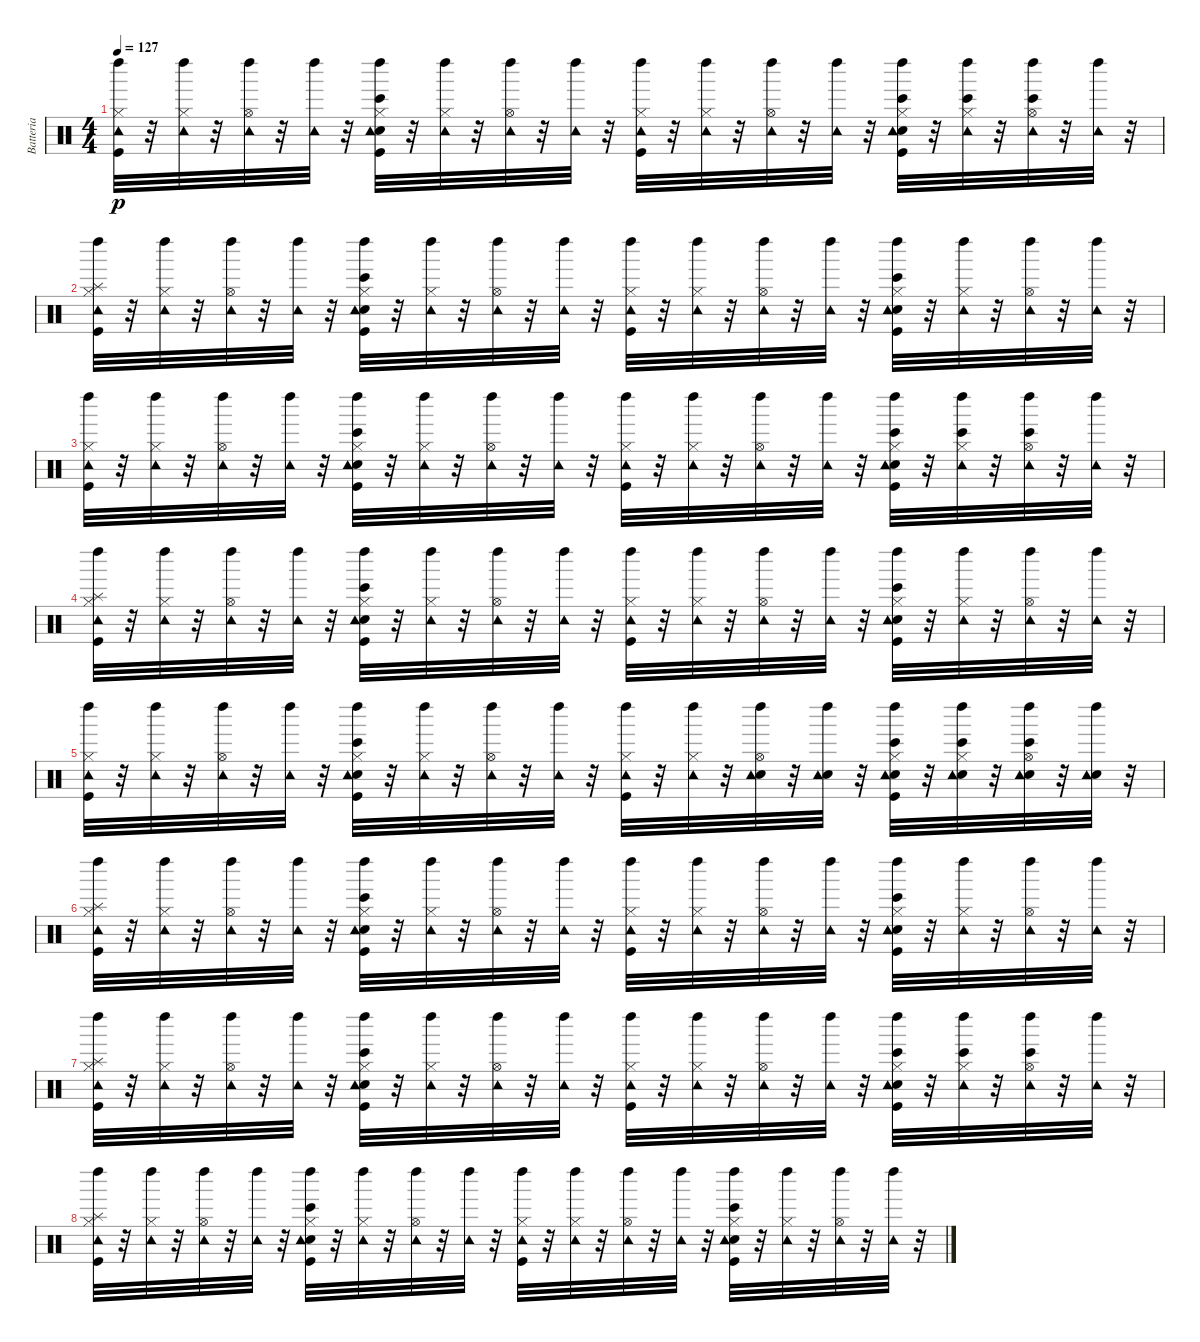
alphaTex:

\track ("Batteria" "Batteria") {instrument percussion}
\staff {score}
\articulation defaults
\ts (4 4)
\tempo 127
\clef neutral
\ks c
("Kick (hit)" "Hi-Hat (closed)" "Tambourine (hit)" "Left Maraca (hit)").32{dy p} r.32 ("Hi-Hat (closed)" "Tambourine (hit)" "Left Maraca (hit)").32 r.32 ("Hi-Hat (open)" "Tambourine (hit)" "Left Maraca (hit)").32 r.32 ("Tambourine (hit)" "Left Maraca (hit)").32 r.32 ("Bongo High (hit)" "Kick (hit)" "Electric Snare (hit)" "Hi-Hat (closed)" "Tambourine (hit)" "Left Maraca (hit)").32 r.32 ("Hi-Hat (closed)" "Tambourine (hit)" "Left Maraca (hit)").32 r.32 ("Hi-Hat (open)" "Tambourine (hit)" "Left Maraca (hit)").32 r.32 ("Tambourine (hit)" "Left Maraca (hit)").32 r.32 ("Kick (hit)" "Hi-Hat (closed)" "Tambourine (hit)" "Left Maraca (hit)").32 r.32 ("Hi-Hat (closed)" "Tambourine (hit)" "Left Maraca (hit)").32 r.32 ("Hi-Hat (open)" "Tambourine (hit)" "Left Maraca (hit)").32 r.32 ("Tambourine (hit)" "Left Maraca (hit)").32 r.32 ("Bongo High (hit)" "Kick (hit)" "Electric Snare (hit)" "Hi-Hat (closed)" "Tambourine (hit)" "Left Maraca (hit)").32 r.32 ("Bongo High (hit)" "Hi-Hat (closed)" "Tambourine (hit)" "Left Maraca (hit)").32 r.32 ("Bongo High (hit)" "Hi-Hat (open)" "Tambourine (hit)" "Left Maraca (hit)").32 r.32 ("Tambourine (hit)" "Left Maraca (hit)").32 r.32 |
("Kick (hit)" "Hi-Hat (closed)" "Tambourine (hit)" "Splash (hit)" "Left Maraca (hit)").32 r.32 ("Hi-Hat (closed)" "Tambourine (hit)" "Left Maraca (hit)").32 r.32 ("Hi-Hat (open)" "Tambourine (hit)" "Left Maraca (hit)").32 r.32 ("Tambourine (hit)" "Left Maraca (hit)").32 r.32 ("Bongo High (hit)" "Kick (hit)" "Electric Snare (hit)" "Hi-Hat (closed)" "Tambourine (hit)" "Left Maraca (hit)").32 r.32 ("Hi-Hat (closed)" "Tambourine (hit)" "Left Maraca (hit)").32 r.32 ("Hi-Hat (open)" "Tambourine (hit)" "Left Maraca (hit)").32 r.32 ("Tambourine (hit)" "Left Maraca (hit)").32 r.32 ("Kick (hit)" "Hi-Hat (closed)" "Tambourine (hit)" "Left Maraca (hit)").32 r.32 ("Hi-Hat (closed)" "Tambourine (hit)" "Left Maraca (hit)").32 r.32 ("Hi-Hat (open)" "Tambourine (hit)" "Left Maraca (hit)").32 r.32 ("Tambourine (hit)" "Left Maraca (hit)").32 r.32 ("Bongo High (hit)" "Kick (hit)" "Electric Snare (hit)" "Hi-Hat (closed)" "Tambourine (hit)" "Left Maraca (hit)").32 r.32 ("Hi-Hat (closed)" "Tambourine (hit)" "Left Maraca (hit)").32 r.32 ("Hi-Hat (open)" "Tambourine (hit)" "Left Maraca (hit)").32 r.32 ("Tambourine (hit)" "Left Maraca (hit)").32 r.32 |
("Kick (hit)" "Hi-Hat (closed)" "Tambourine (hit)" "Left Maraca (hit)").32 r.32 ("Hi-Hat (closed)" "Tambourine (hit)" "Left Maraca (hit)").32 r.32 ("Hi-Hat (open)" "Tambourine (hit)" "Left Maraca (hit)").32 r.32 ("Tambourine (hit)" "Left Maraca (hit)").32 r.32 ("Bongo High (hit)" "Kick (hit)" "Electric Snare (hit)" "Hi-Hat (closed)" "Tambourine (hit)" "Left Maraca (hit)").32 r.32 ("Hi-Hat (closed)" "Tambourine (hit)" "Left Maraca (hit)").32 r.32 ("Hi-Hat (open)" "Tambourine (hit)" "Left Maraca (hit)").32 r.32 ("Tambourine (hit)" "Left Maraca (hit)").32 r.32 ("Kick (hit)" "Hi-Hat (closed)" "Tambourine (hit)" "Left Maraca (hit)").32 r.32 ("Hi-Hat (closed)" "Tambourine (hit)" "Left Maraca (hit)").32 r.32 ("Hi-Hat (open)" "Tambourine (hit)" "Left Maraca (hit)").32 r.32 ("Tambourine (hit)" "Left Maraca (hit)").32 r.32 ("Bongo High (hit)" "Kick (hit)" "Electric Snare (hit)" "Hi-Hat (closed)" "Tambourine (hit)" "Left Maraca (hit)").32 r.32 ("Bongo High (hit)" "Hi-Hat (closed)" "Tambourine (hit)" "Left Maraca (hit)").32 r.32 ("Bongo High (hit)" "Hi-Hat (open)" "Tambourine (hit)" "Left Maraca (hit)").32 r.32 ("Tambourine (hit)" "Left Maraca (hit)").32 r.32 |
("Kick (hit)" "Hi-Hat (closed)" "Tambourine (hit)" "Splash (hit)" "Left Maraca (hit)").32 r.32 ("Hi-Hat (closed)" "Tambourine (hit)" "Left Maraca (hit)").32 r.32 ("Hi-Hat (open)" "Tambourine (hit)" "Left Maraca (hit)").32 r.32 ("Tambourine (hit)" "Left Maraca (hit)").32 r.32 ("Bongo High (hit)" "Kick (hit)" "Electric Snare (hit)" "Hi-Hat (closed)" "Tambourine (hit)" "Left Maraca (hit)").32 r.32 ("Hi-Hat (closed)" "Tambourine (hit)" "Left Maraca (hit)").32 r.32 ("Hi-Hat (open)" "Tambourine (hit)" "Left Maraca (hit)").32 r.32 ("Tambourine (hit)" "Left Maraca (hit)").32 r.32 ("Kick (hit)" "Hi-Hat (closed)" "Tambourine (hit)" "Left Maraca (hit)").32 r.32 ("Hi-Hat (closed)" "Tambourine (hit)" "Left Maraca (hit)").32 r.32 ("Hi-Hat (open)" "Tambourine (hit)" "Left Maraca (hit)").32 r.32 ("Tambourine (hit)" "Left Maraca (hit)").32 r.32 ("Bongo High (hit)" "Kick (hit)" "Electric Snare (hit)" "Hi-Hat (closed)" "Tambourine (hit)" "Left Maraca (hit)").32 r.32 ("Hi-Hat (closed)" "Tambourine (hit)" "Left Maraca (hit)").32 r.32 ("Hi-Hat (open)" "Tambourine (hit)" "Left Maraca (hit)").32 r.32 ("Tambourine (hit)" "Left Maraca (hit)").32 r.32 |
("Kick (hit)" "Hi-Hat (closed)" "Tambourine (hit)" "Left Maraca (hit)").32 r.32 ("Hi-Hat (closed)" "Tambourine (hit)" "Left Maraca (hit)").32 r.32 ("Hi-Hat (open)" "Tambourine (hit)" "Left Maraca (hit)").32 r.32 ("Tambourine (hit)" "Left Maraca (hit)").32 r.32 ("Bongo High (hit)" "Kick (hit)" "Electric Snare (hit)" "Hi-Hat (closed)" "Tambourine (hit)" "Left Maraca (hit)").32 r.32 ("Hi-Hat (closed)" "Tambourine (hit)" "Left Maraca (hit)").32 r.32 ("Hi-Hat (open)" "Tambourine (hit)" "Left Maraca (hit)").32 r.32 ("Tambourine (hit)" "Left Maraca (hit)").32 r.32 ("Kick (hit)" "Hi-Hat (closed)" "Tambourine (hit)" "Left Maraca (hit)").32 r.32 ("Hi-Hat (closed)" "Tambourine (hit)" "Left Maraca (hit)").32 r.32 ("Electric Snare (hit)" "Hi-Hat (open)" "Tambourine (hit)" "Left Maraca (hit)").32 r.32 ("Electric Snare (hit)" "Tambourine (hit)" "Left Maraca (hit)").32 r.32 ("Bongo High (hit)" "Kick (hit)" "Electric Snare (hit)" "Hi-Hat (closed)" "Tambourine (hit)" "Left Maraca (hit)").32 r.32 ("Bongo High (hit)" "Electric Snare (hit)" "Hi-Hat (closed)" "Tambourine (hit)" "Left Maraca (hit)").32 r.32 ("Bongo High (hit)" "Electric Snare (hit)" "Hi-Hat (open)" "Tambourine (hit)" "Left Maraca (hit)").32 r.32 ("Electric Snare (hit)" "Tambourine (hit)" "Left Maraca (hit)").32 r.32 |
("Kick (hit)" "Hi-Hat (closed)" "Tambourine (hit)" "Splash (hit)" "Left Maraca (hit)").32 r.32 ("Hi-Hat (closed)" "Tambourine (hit)" "Left Maraca (hit)").32 r.32 ("Hi-Hat (open)" "Tambourine (hit)" "Left Maraca (hit)").32 r.32 ("Tambourine (hit)" "Left Maraca (hit)").32 r.32 ("Bongo High (hit)" "Kick (hit)" "Electric Snare (hit)" "Hi-Hat (closed)" "Tambourine (hit)" "Left Maraca (hit)").32 r.32 ("Hi-Hat (closed)" "Tambourine (hit)" "Left Maraca (hit)").32 r.32 ("Hi-Hat (open)" "Tambourine (hit)" "Left Maraca (hit)").32 r.32 ("Tambourine (hit)" "Left Maraca (hit)").32 r.32 ("Kick (hit)" "Hi-Hat (closed)" "Tambourine (hit)" "Left Maraca (hit)").32 r.32 ("Hi-Hat (closed)" "Tambourine (hit)" "Left Maraca (hit)").32 r.32 ("Hi-Hat (open)" "Tambourine (hit)" "Left Maraca (hit)").32 r.32 ("Tambourine (hit)" "Left Maraca (hit)").32 r.32 ("Bongo High (hit)" "Kick (hit)" "Electric Snare (hit)" "Hi-Hat (closed)" "Tambourine (hit)" "Left Maraca (hit)").32 r.32 ("Hi-Hat (closed)" "Tambourine (hit)" "Left Maraca (hit)").32 r.32 ("Hi-Hat (open)" "Tambourine (hit)" "Left Maraca (hit)").32 r.32 ("Tambourine (hit)" "Left Maraca (hit)").32 r.32 |
("Kick (hit)" "Hi-Hat (closed)" "Tambourine (hit)" "Splash (hit)" "Left Maraca (hit)").32 r.32 ("Hi-Hat (closed)" "Tambourine (hit)" "Left Maraca (hit)").32 r.32 ("Hi-Hat (open)" "Tambourine (hit)" "Left Maraca (hit)").32 r.32 ("Tambourine (hit)" "Left Maraca (hit)").32 r.32 ("Bongo High (hit)" "Kick (hit)" "Electric Snare (hit)" "Hi-Hat (closed)" "Tambourine (hit)" "Left Maraca (hit)").32 r.32 ("Hi-Hat (closed)" "Tambourine (hit)" "Left Maraca (hit)").32 r.32 ("Hi-Hat (open)" "Tambourine (hit)" "Left Maraca (hit)").32 r.32 ("Tambourine (hit)" "Left Maraca (hit)").32 r.32 ("Kick (hit)" "Hi-Hat (closed)" "Tambourine (hit)" "Left Maraca (hit)").32 r.32 ("Hi-Hat (closed)" "Tambourine (hit)" "Left Maraca (hit)").32 r.32 ("Hi-Hat (open)" "Tambourine (hit)" "Left Maraca (hit)").32 r.32 ("Tambourine (hit)" "Left Maraca (hit)").32 r.32 ("Bongo High (hit)" "Kick (hit)" "Electric Snare (hit)" "Hi-Hat (closed)" "Tambourine (hit)" "Left Maraca (hit)").32 r.32 ("Bongo High (hit)" "Hi-Hat (closed)" "Tambourine (hit)" "Left Maraca (hit)").32 r.32 ("Bongo High (hit)" "Hi-Hat (open)" "Tambourine (hit)" "Left Maraca (hit)").32 r.32 ("Tambourine (hit)" "Left Maraca (hit)").32 r.32 |
("Kick (hit)" "Hi-Hat (closed)" "Tambourine (hit)" "Splash (hit)" "Left Maraca (hit)").32 r.32 ("Hi-Hat (closed)" "Tambourine (hit)" "Left Maraca (hit)").32 r.32 ("Hi-Hat (open)" "Tambourine (hit)" "Left Maraca (hit)").32 r.32 ("Tambourine (hit)" "Left Maraca (hit)").32 r.32 ("Bongo High (hit)" "Kick (hit)" "Electric Snare (hit)" "Hi-Hat (closed)" "Tambourine (hit)" "Left Maraca (hit)").32 r.32 ("Hi-Hat (closed)" "Tambourine (hit)" "Left Maraca (hit)").32 r.32 ("Hi-Hat (open)" "Tambourine (hit)" "Left Maraca (hit)").32 r.32 ("Tambourine (hit)" "Left Maraca (hit)").32 r.32 ("Kick (hit)" "Hi-Hat (closed)" "Tambourine (hit)" "Left Maraca (hit)").32 r.32 ("Hi-Hat (closed)" "Tambourine (hit)" "Left Maraca (hit)").32 r.32 ("Hi-Hat (open)" "Tambourine (hit)" "Left Maraca (hit)").32 r.32 ("Tambourine (hit)" "Left Maraca (hit)").32 r.32 ("Bongo High (hit)" "Kick (hit)" "Electric Snare (hit)" "Hi-Hat (closed)" "Tambourine (hit)" "Left Maraca (hit)").32 r.32 ("Hi-Hat (closed)" "Tambourine (hit)" "Left Maraca (hit)").32 r.32 ("Hi-Hat (open)" "Tambourine (hit)" "Left Maraca (hit)").32 r.32 ("Tambourine (hit)" "Left Maraca (hit)").32 r.32
